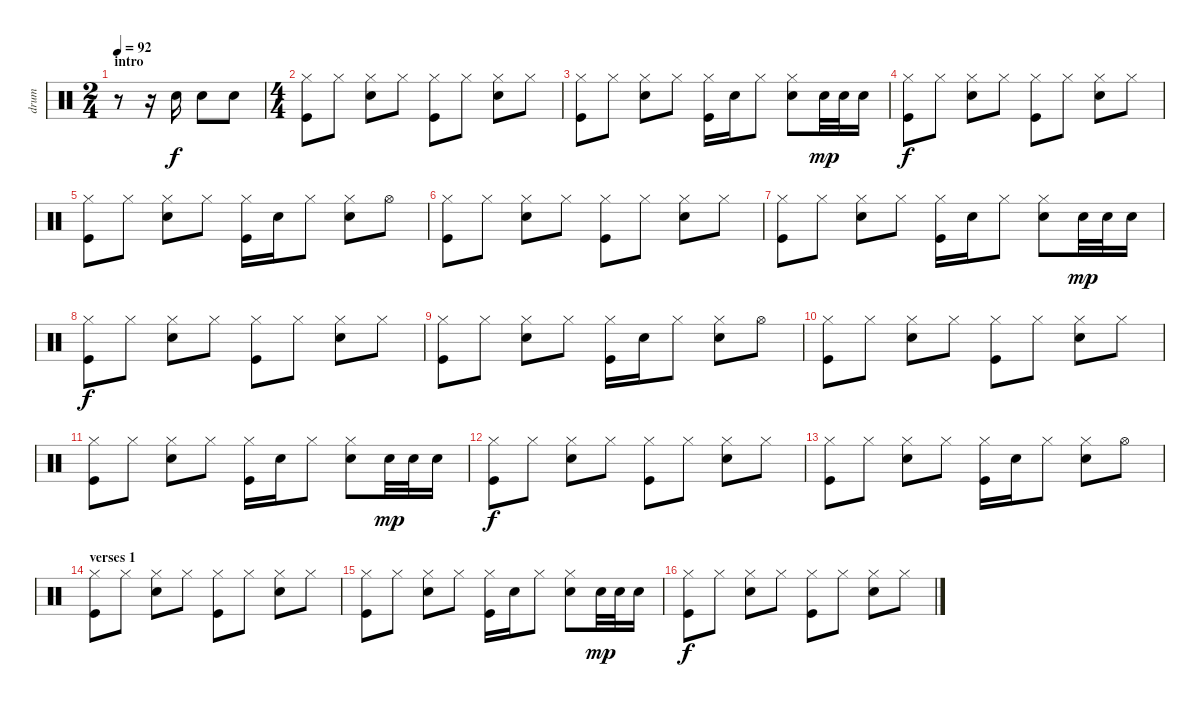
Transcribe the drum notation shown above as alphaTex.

\track ("drum" "drum") {instrument percussion}
\staff {score}
\articulation defaults
\ts (2 4)
\section ("" "intro")
\tempo 92
\clef neutral
\ks c
r.8{dy f} r.16 "Snare (hit) 2".16 "Snare (hit) 2".8 "Snare (hit) 2".8 |
\ts (4 4)
("Hi-Hat (closed)" "Kick (hit)").8 "Hi-Hat (closed)".8 ("Hi-Hat (closed)" "Snare (hit) 2").8 "Hi-Hat (closed)".8 ("Hi-Hat (closed)" "Kick (hit)").8 "Hi-Hat (closed)".8 ("Hi-Hat (closed)" "Snare (hit) 2").8 "Hi-Hat (closed)".8 |
("Hi-Hat (closed)" "Kick (hit)").8 "Hi-Hat (closed)".8 ("Hi-Hat (closed)" "Snare (hit) 2").8 "Hi-Hat (closed)".8 ("Hi-Hat (closed)" "Kick (hit)").16 "Snare (hit) 2".16 "Hi-Hat (closed)".8 ("Hi-Hat (closed)" "Snare (hit) 2").8 "Snare (hit) 2".32{dy mp} "Snare (hit) 2".32 "Snare (hit) 2".16 |
("Hi-Hat (closed)" "Kick (hit)").8{dy f} "Hi-Hat (closed)".8 ("Hi-Hat (closed)" "Snare (hit) 2").8 "Hi-Hat (closed)".8 ("Hi-Hat (closed)" "Kick (hit)").8 "Hi-Hat (closed)".8 ("Hi-Hat (closed)" "Snare (hit) 2").8 "Hi-Hat (closed)".8 |
("Hi-Hat (closed)" "Kick (hit)").8 "Hi-Hat (closed)".8 ("Hi-Hat (closed)" "Snare (hit) 2").8 "Hi-Hat (closed)".8 ("Hi-Hat (closed)" "Kick (hit)").16 "Snare (hit) 2".16 "Hi-Hat (closed)".8 ("Hi-Hat (closed)" "Snare (hit) 2").8 "Hi-Hat (open)".8 |
("Hi-Hat (closed)" "Kick (hit)").8 "Hi-Hat (closed)".8 ("Hi-Hat (closed)" "Snare (hit) 2").8 "Hi-Hat (closed)".8 ("Hi-Hat (closed)" "Kick (hit)").8 "Hi-Hat (closed)".8 ("Hi-Hat (closed)" "Snare (hit) 2").8 "Hi-Hat (closed)".8 |
("Hi-Hat (closed)" "Kick (hit)").8 "Hi-Hat (closed)".8 ("Hi-Hat (closed)" "Snare (hit) 2").8 "Hi-Hat (closed)".8 ("Hi-Hat (closed)" "Kick (hit)").16 "Snare (hit) 2".16 "Hi-Hat (closed)".8 ("Hi-Hat (closed)" "Snare (hit) 2").8 "Snare (hit) 2".32{dy mp} "Snare (hit) 2".32 "Snare (hit) 2".16 |
("Hi-Hat (closed)" "Kick (hit)").8{dy f} "Hi-Hat (closed)".8 ("Hi-Hat (closed)" "Snare (hit) 2").8 "Hi-Hat (closed)".8 ("Hi-Hat (closed)" "Kick (hit)").8 "Hi-Hat (closed)".8 ("Hi-Hat (closed)" "Snare (hit) 2").8 "Hi-Hat (closed)".8 |
("Hi-Hat (closed)" "Kick (hit)").8 "Hi-Hat (closed)".8 ("Hi-Hat (closed)" "Snare (hit) 2").8 "Hi-Hat (closed)".8 ("Hi-Hat (closed)" "Kick (hit)").16 "Snare (hit) 2".16 "Hi-Hat (closed)".8 ("Hi-Hat (closed)" "Snare (hit) 2").8 "Hi-Hat (open)".8 |
("Hi-Hat (closed)" "Kick (hit)").8 "Hi-Hat (closed)".8 ("Hi-Hat (closed)" "Snare (hit) 2").8 "Hi-Hat (closed)".8 ("Hi-Hat (closed)" "Kick (hit)").8 "Hi-Hat (closed)".8 ("Hi-Hat (closed)" "Snare (hit) 2").8 "Hi-Hat (closed)".8 |
("Hi-Hat (closed)" "Kick (hit)").8 "Hi-Hat (closed)".8 ("Hi-Hat (closed)" "Snare (hit) 2").8 "Hi-Hat (closed)".8 ("Hi-Hat (closed)" "Kick (hit)").16 "Snare (hit) 2".16 "Hi-Hat (closed)".8 ("Hi-Hat (closed)" "Snare (hit) 2").8 "Snare (hit) 2".32{dy mp} "Snare (hit) 2".32 "Snare (hit) 2".16 |
("Hi-Hat (closed)" "Kick (hit)").8{dy f} "Hi-Hat (closed)".8 ("Hi-Hat (closed)" "Snare (hit) 2").8 "Hi-Hat (closed)".8 ("Hi-Hat (closed)" "Kick (hit)").8 "Hi-Hat (closed)".8 ("Hi-Hat (closed)" "Snare (hit) 2").8 "Hi-Hat (closed)".8 |
("Hi-Hat (closed)" "Kick (hit)").8 "Hi-Hat (closed)".8 ("Hi-Hat (closed)" "Snare (hit) 2").8 "Hi-Hat (closed)".8 ("Hi-Hat (closed)" "Kick (hit)").16 "Snare (hit) 2".16 "Hi-Hat (closed)".8 ("Hi-Hat (closed)" "Snare (hit) 2").8 "Hi-Hat (open)".8 |
\section ("" "verses 1")
("Hi-Hat (closed)" "Kick (hit)").8 "Hi-Hat (closed)".8 ("Hi-Hat (closed)" "Snare (hit) 2").8 "Hi-Hat (closed)".8 ("Hi-Hat (closed)" "Kick (hit)").8 "Hi-Hat (closed)".8 ("Hi-Hat (closed)" "Snare (hit) 2").8 "Hi-Hat (closed)".8 |
("Hi-Hat (closed)" "Kick (hit)").8 "Hi-Hat (closed)".8 ("Hi-Hat (closed)" "Snare (hit) 2").8 "Hi-Hat (closed)".8 ("Hi-Hat (closed)" "Kick (hit)").16 "Snare (hit) 2".16 "Hi-Hat (closed)".8 ("Hi-Hat (closed)" "Snare (hit) 2").8 "Snare (hit) 2".32{dy mp} "Snare (hit) 2".32 "Snare (hit) 2".16 |
("Hi-Hat (closed)" "Kick (hit)").8{dy f} "Hi-Hat (closed)".8 ("Hi-Hat (closed)" "Snare (hit) 2").8 "Hi-Hat (closed)".8 ("Hi-Hat (closed)" "Kick (hit)").8 "Hi-Hat (closed)".8 ("Hi-Hat (closed)" "Snare (hit) 2").8 "Hi-Hat (closed)".8
